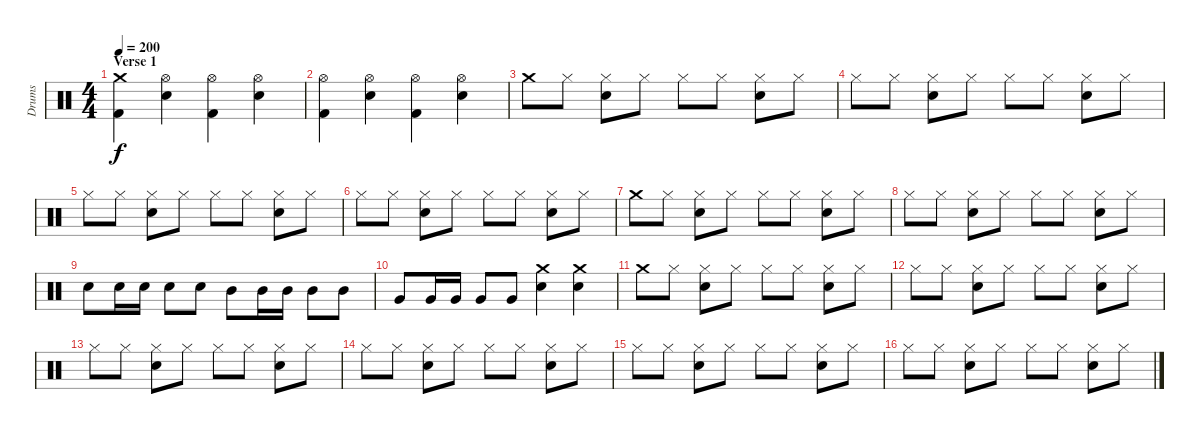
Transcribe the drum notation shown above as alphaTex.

\track ("Drums" "Drums") {instrument percussion}
\staff {score}
\articulation defaults
\ts (4 4)
\section ("" "Verse 1")
\tempo 200
\clef neutral
\ks c
("Crash medium (hit)" "Kick (hit) 2").4{dy f} ("Hi-Hat (open)" "Snare (hit) 2").4 ("Hi-Hat (open)" "Kick (hit) 2").4 ("Hi-Hat (open)" "Snare (hit) 2").4 |
("Hi-Hat (open)" "Kick (hit) 2").4 ("Hi-Hat (open)" "Snare (hit) 2").4 ("Hi-Hat (open)" "Kick (hit) 2").4 ("Hi-Hat (open)" "Snare (hit) 2").4 |
"Crash medium (hit)".8 "Hi-Hat (closed)".8 ("Hi-Hat (closed)" "Snare (hit) 2").8 "Hi-Hat (closed)".8 "Hi-Hat (closed)".8 "Hi-Hat (closed)".8 ("Hi-Hat (closed)" "Snare (hit) 2").8 "Hi-Hat (closed)".8 |
"Hi-Hat (closed)".8 "Hi-Hat (closed)".8 ("Hi-Hat (closed)" "Snare (hit) 2").8 "Hi-Hat (closed)".8 "Hi-Hat (closed)".8 "Hi-Hat (closed)".8 ("Hi-Hat (closed)" "Snare (hit) 2").8 "Hi-Hat (closed)".8 |
"Hi-Hat (closed)".8 "Hi-Hat (closed)".8 ("Hi-Hat (closed)" "Snare (hit) 2").8 "Hi-Hat (closed)".8 "Hi-Hat (closed)".8 "Hi-Hat (closed)".8 ("Hi-Hat (closed)" "Snare (hit) 2").8 "Hi-Hat (closed)".8 |
"Hi-Hat (closed)".8 "Hi-Hat (closed)".8 ("Hi-Hat (closed)" "Snare (hit) 2").8 "Hi-Hat (closed)".8 "Hi-Hat (closed)".8 "Hi-Hat (closed)".8 ("Hi-Hat (closed)" "Snare (hit) 2").8 "Hi-Hat (closed)".8 |
"Crash medium (hit)".8 "Hi-Hat (closed)".8 ("Hi-Hat (closed)" "Snare (hit) 2").8 "Hi-Hat (closed)".8 "Hi-Hat (closed)".8 "Hi-Hat (closed)".8 ("Hi-Hat (closed)" "Snare (hit) 2").8 "Hi-Hat (closed)".8 |
"Hi-Hat (closed)".8 "Hi-Hat (closed)".8 ("Hi-Hat (closed)" "Snare (hit) 2").8 "Hi-Hat (closed)".8 "Hi-Hat (closed)".8 "Hi-Hat (closed)".8 ("Hi-Hat (closed)" "Snare (hit) 2").8 "Hi-Hat (closed)".8 |
"Snare (hit) 2".8 "Snare (hit) 2".16 "Snare (hit) 2".16 "Snare (hit) 2".8 "Snare (hit) 2".8 "Mid Tom (hit)".8 "Mid Tom (hit)".16 "Mid Tom (hit)".16 "Mid Tom (hit)".8 "Mid Tom (hit)".8 |
"Very Low Tom (hit)".8 "Very Low Tom (hit)".16 "Very Low Tom (hit)".16 "Very Low Tom (hit)".8 "Very Low Tom (hit)".8 ("Crash medium (hit)" "Snare (hit) 2").4 ("Crash medium (hit)" "Snare (hit) 2").4 |
"Crash medium (hit)".8 "Hi-Hat (closed)".8 ("Hi-Hat (closed)" "Snare (hit) 2").8 "Hi-Hat (closed)".8 "Hi-Hat (closed)".8 "Hi-Hat (closed)".8 ("Hi-Hat (closed)" "Snare (hit) 2").8 "Hi-Hat (closed)".8 |
"Hi-Hat (closed)".8 "Hi-Hat (closed)".8 ("Hi-Hat (closed)" "Snare (hit) 2").8 "Hi-Hat (closed)".8 "Hi-Hat (closed)".8 "Hi-Hat (closed)".8 ("Hi-Hat (closed)" "Snare (hit) 2").8 "Hi-Hat (closed)".8 |
"Hi-Hat (closed)".8 "Hi-Hat (closed)".8 ("Hi-Hat (closed)" "Snare (hit) 2").8 "Hi-Hat (closed)".8 "Hi-Hat (closed)".8 "Hi-Hat (closed)".8 ("Hi-Hat (closed)" "Snare (hit) 2").8 "Hi-Hat (closed)".8 |
"Hi-Hat (closed)".8 "Hi-Hat (closed)".8 ("Hi-Hat (closed)" "Snare (hit) 2").8 "Hi-Hat (closed)".8 "Hi-Hat (closed)".8 "Hi-Hat (closed)".8 ("Hi-Hat (closed)" "Snare (hit) 2").8 "Hi-Hat (closed)".8 |
"Hi-Hat (closed)".8 "Hi-Hat (closed)".8 ("Hi-Hat (closed)" "Snare (hit) 2").8 "Hi-Hat (closed)".8 "Hi-Hat (closed)".8 "Hi-Hat (closed)".8 ("Hi-Hat (closed)" "Snare (hit) 2").8 "Hi-Hat (closed)".8 |
"Hi-Hat (closed)".8 "Hi-Hat (closed)".8 ("Hi-Hat (closed)" "Snare (hit) 2").8 "Hi-Hat (closed)".8 "Hi-Hat (closed)".8 "Hi-Hat (closed)".8 ("Hi-Hat (closed)" "Snare (hit) 2").8 "Hi-Hat (closed)".8
